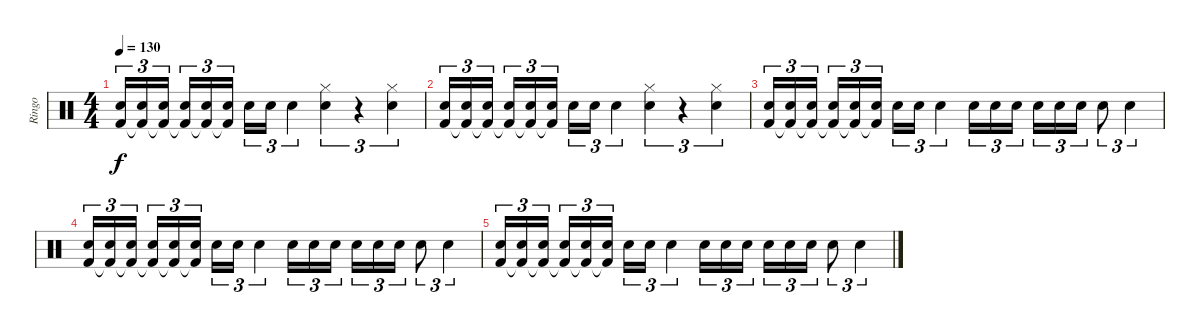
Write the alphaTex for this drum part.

\track ("Ringo" "Ringo") {instrument percussion}
\staff {score}
\articulation defaults
\ts (4 4)
\tempo 130
\clef neutral
\ks c
("Snare (hit) 2" "Kick (hit) 2").16{tu (3 2) dy f volume 8} ("Snare (hit) 2" "Kick (hit) 2"{t}).16{tu (3 2)} ("Snare (hit) 2" "Kick (hit) 2"{t}).16{tu (3 2)} ("Snare (hit) 2" "Kick (hit) 2"{t}).16{tu (3 2)} ("Snare (hit) 2" "Kick (hit) 2"{t}).16{tu (3 2)} ("Snare (hit) 2" "Kick (hit) 2"{t}).16{tu (3 2)} "Snare (hit) 2".16{tu (3 2)} "Snare (hit) 2".16{tu (3 2)} "Snare (hit) 2".4{tu (3 2)} ("Hi-Hat (closed)" "Snare (hit) 2").4{tu (3 2)} r.4{tu (3 2)} ("Hi-Hat (closed)" "Snare (hit) 2").4{tu (3 2)} |
("Snare (hit) 2" "Kick (hit) 2").16{tu (3 2) volume 6} ("Snare (hit) 2" "Kick (hit) 2"{t}).16{tu (3 2)} ("Snare (hit) 2" "Kick (hit) 2"{t}).16{tu (3 2)} ("Snare (hit) 2" "Kick (hit) 2"{t}).16{tu (3 2)} ("Snare (hit) 2" "Kick (hit) 2"{t}).16{tu (3 2)} ("Snare (hit) 2" "Kick (hit) 2"{t}).16{tu (3 2)} "Snare (hit) 2".16{tu (3 2)} "Snare (hit) 2".16{tu (3 2)} "Snare (hit) 2".4{tu (3 2)} ("Hi-Hat (closed)" "Snare (hit) 2").4{tu (3 2)} r.4{tu (3 2)} ("Hi-Hat (closed)" "Snare (hit) 2").4{tu (3 2)} |
("Snare (hit) 2" "Kick (hit) 2").16{tu (3 2) volume 4} ("Snare (hit) 2" "Kick (hit) 2"{t}).16{tu (3 2)} ("Snare (hit) 2" "Kick (hit) 2"{t}).16{tu (3 2)} ("Snare (hit) 2" "Kick (hit) 2"{t}).16{tu (3 2)} ("Snare (hit) 2" "Kick (hit) 2"{t}).16{tu (3 2)} ("Snare (hit) 2" "Kick (hit) 2"{t}).16{tu (3 2)} "Snare (hit) 2".16{tu (3 2)} "Snare (hit) 2".16{tu (3 2)} "Snare (hit) 2".4{tu (3 2)} "Snare (hit) 2".16{tu (3 2)} "Snare (hit) 2".16{tu (3 2)} "Snare (hit) 2".16{tu (3 2)} "Snare (hit) 2".16{tu (3 2)} "Snare (hit) 2".16{tu (3 2)} "Snare (hit) 2".16{tu (3 2)} "Snare (hit) 2".8{tu (3 2)} "Snare (hit) 2".4{tu (3 2)} |
("Snare (hit) 2" "Kick (hit) 2").16{tu (3 2) volume 2} ("Snare (hit) 2" "Kick (hit) 2"{t}).16{tu (3 2)} ("Snare (hit) 2" "Kick (hit) 2"{t}).16{tu (3 2)} ("Snare (hit) 2" "Kick (hit) 2"{t}).16{tu (3 2)} ("Snare (hit) 2" "Kick (hit) 2"{t}).16{tu (3 2)} ("Snare (hit) 2" "Kick (hit) 2"{t}).16{tu (3 2)} "Snare (hit) 2".16{tu (3 2)} "Snare (hit) 2".16{tu (3 2)} "Snare (hit) 2".4{tu (3 2)} "Snare (hit) 2".16{tu (3 2)} "Snare (hit) 2".16{tu (3 2)} "Snare (hit) 2".16{tu (3 2)} "Snare (hit) 2".16{tu (3 2)} "Snare (hit) 2".16{tu (3 2)} "Snare (hit) 2".16{tu (3 2)} "Snare (hit) 2".8{tu (3 2)} "Snare (hit) 2".4{tu (3 2)} |
("Snare (hit) 2" "Kick (hit) 2").16{tu (3 2) volume 2} ("Snare (hit) 2" "Kick (hit) 2"{t}).16{tu (3 2)} ("Snare (hit) 2" "Kick (hit) 2"{t}).16{tu (3 2)} ("Snare (hit) 2" "Kick (hit) 2"{t}).16{tu (3 2)} ("Snare (hit) 2" "Kick (hit) 2"{t}).16{tu (3 2)} ("Snare (hit) 2" "Kick (hit) 2"{t}).16{tu (3 2)} "Snare (hit) 2".16{tu (3 2)} "Snare (hit) 2".16{tu (3 2)} "Snare (hit) 2".4{tu (3 2)} "Snare (hit) 2".16{tu (3 2) volume 1} "Snare (hit) 2".16{tu (3 2)} "Snare (hit) 2".16{tu (3 2)} "Snare (hit) 2".16{tu (3 2)} "Snare (hit) 2".16{tu (3 2)} "Snare (hit) 2".16{tu (3 2)} "Snare (hit) 2".8{tu (3 2)} "Snare (hit) 2".4{tu (3 2)}
